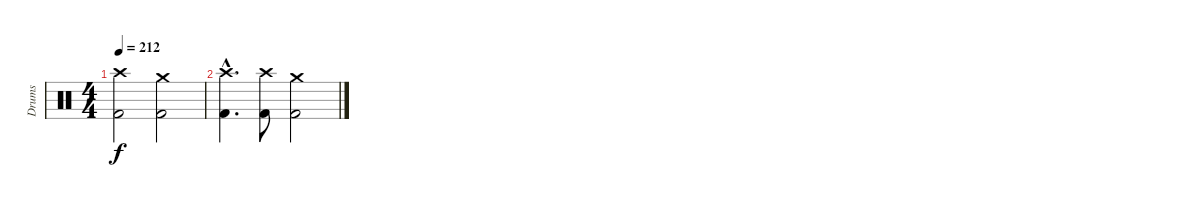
\track ("Drums" "Drums") {instrument percussion}
\staff {score}
\articulation defaults
\ts (4 4)
\tempo 212
\clef neutral
\ks c
("Crash high (hit)" "Kick (hit) 2").2{dy f} ("Crash medium (hit)" "Kick (hit) 2").2 |
("Crash high (hit)"{hac} "Kick (hit) 2"{hac}).4{d} ("Crash high (hit)" "Kick (hit) 2").8 ("Crash medium (hit)" "Kick (hit) 2").2
